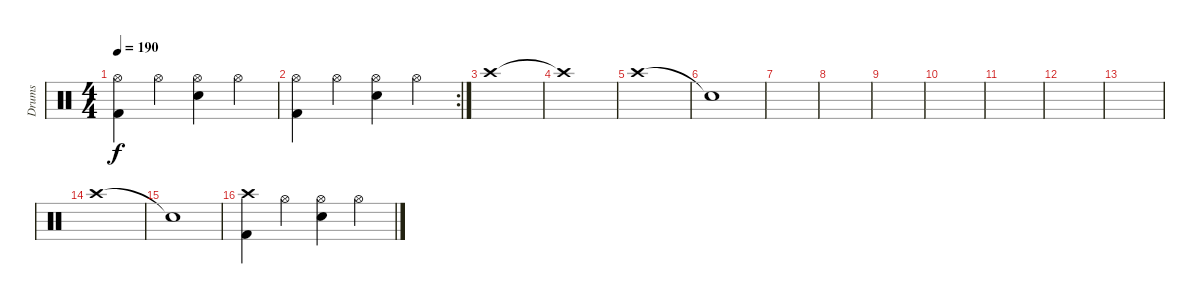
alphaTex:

\track ("Drums" "Drums") {instrument percussion}
\staff {score}
\articulation defaults
\ts (4 4)
\tempo 190
\clef neutral
\ks c
("Hi-Hat (open)" "Kick (hit) 2").4{dy f} "Hi-Hat (open)".4 ("Hi-Hat (open)" "Electric Snare (hit)").4 "Hi-Hat (open)".4 |
\rc 2
("Hi-Hat (open)" "Kick (hit) 2").4 "Hi-Hat (open)".4 ("Hi-Hat (open)" "Electric Snare (hit)").4 "Hi-Hat (open)".4 |
"Crash high (hit)".1 |
"Crash high (hit)"{t}.1 |
"Crash high (hit)".1 |
"Snare (hit)"{t}.1 |
|
|
|
|
|
|
|
"Crash high (hit)".1 |
"Snare (hit)"{t}.1 |
("Crash high (hit)" "Kick (hit) 2").4 "Hi-Hat (open)".4 ("Hi-Hat (open)" "Electric Snare (hit)").4 "Hi-Hat (open)".4
